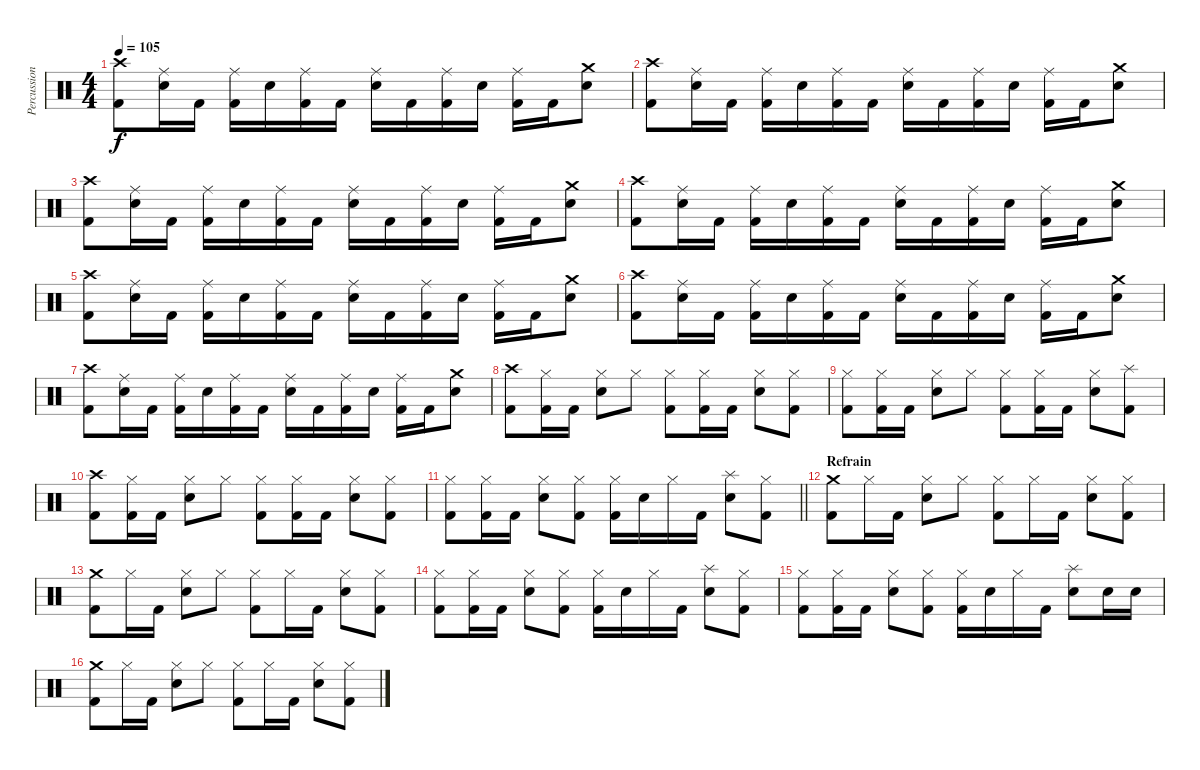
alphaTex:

\track ("Percussions" "Percussion") {instrument percussion}
\staff {score}
\articulation defaults
\ts (4 4)
\tempo 105
\clef neutral
\ks c
("Crash high (hit)" "Kick (hit) 2").8{dy f} ("Ride (middle)" "Electric Snare (hit)").16 "Kick (hit) 2".16 ("Ride (middle)" "Kick (hit) 2").16 "Electric Snare (hit)".16 ("Ride (middle)" "Kick (hit) 2").16 "Kick (hit) 2".16 ("Ride (middle)" "Electric Snare (hit)").16 "Kick (hit) 2".16 ("Ride (middle)" "Kick (hit) 2").16 "Electric Snare (hit)".16 ("Ride (middle)" "Kick (hit) 2").16 "Kick (hit) 2".16 ("Crash medium (hit)" "Electric Snare (hit)").8 |
("Crash high (hit)" "Kick (hit) 2").8 ("Ride (middle)" "Electric Snare (hit)").16 "Kick (hit) 2".16 ("Ride (middle)" "Kick (hit) 2").16 "Electric Snare (hit)".16 ("Ride (middle)" "Kick (hit) 2").16 "Kick (hit) 2".16 ("Ride (middle)" "Electric Snare (hit)").16 "Kick (hit) 2".16 ("Ride (middle)" "Kick (hit) 2").16 "Electric Snare (hit)".16 ("Ride (middle)" "Kick (hit) 2").16 "Kick (hit) 2".16 ("Crash medium (hit)" "Electric Snare (hit)").8 |
("Crash high (hit)" "Kick (hit) 2").8 ("Ride (middle)" "Electric Snare (hit)").16 "Kick (hit) 2".16 ("Ride (middle)" "Kick (hit) 2").16 "Electric Snare (hit)".16 ("Ride (middle)" "Kick (hit) 2").16 "Kick (hit) 2".16 ("Ride (middle)" "Electric Snare (hit)").16 "Kick (hit) 2".16 ("Ride (middle)" "Kick (hit) 2").16 "Electric Snare (hit)".16 ("Ride (middle)" "Kick (hit) 2").16 "Kick (hit) 2".16 ("Crash medium (hit)" "Electric Snare (hit)").8 |
("Crash high (hit)" "Kick (hit) 2").8 ("Ride (middle)" "Electric Snare (hit)").16 "Kick (hit) 2".16 ("Ride (middle)" "Kick (hit) 2").16 "Electric Snare (hit)".16 ("Ride (middle)" "Kick (hit) 2").16 "Kick (hit) 2".16 ("Ride (middle)" "Electric Snare (hit)").16 "Kick (hit) 2".16 ("Ride (middle)" "Kick (hit) 2").16 "Electric Snare (hit)".16 ("Ride (middle)" "Kick (hit) 2").16 "Kick (hit) 2".16 ("Crash medium (hit)" "Electric Snare (hit)").8 |
("Crash high (hit)" "Kick (hit) 2").8 ("Ride (middle)" "Electric Snare (hit)").16 "Kick (hit) 2".16 ("Ride (middle)" "Kick (hit) 2").16 "Electric Snare (hit)".16 ("Ride (middle)" "Kick (hit) 2").16 "Kick (hit) 2".16 ("Ride (middle)" "Electric Snare (hit)").16 "Kick (hit) 2".16 ("Ride (middle)" "Kick (hit) 2").16 "Electric Snare (hit)".16 ("Ride (middle)" "Kick (hit) 2").16 "Kick (hit) 2".16 ("Crash medium (hit)" "Electric Snare (hit)").8 |
("Crash high (hit)" "Kick (hit) 2").8 ("Ride (middle)" "Electric Snare (hit)").16 "Kick (hit) 2".16 ("Ride (middle)" "Kick (hit) 2").16 "Electric Snare (hit)".16 ("Ride (middle)" "Kick (hit) 2").16 "Kick (hit) 2".16 ("Ride (middle)" "Electric Snare (hit)").16 "Kick (hit) 2".16 ("Ride (middle)" "Kick (hit) 2").16 "Electric Snare (hit)".16 ("Ride (middle)" "Kick (hit) 2").16 "Kick (hit) 2".16 ("Crash medium (hit)" "Electric Snare (hit)").8 |
("Crash high (hit)" "Kick (hit) 2").8 ("Ride (middle)" "Electric Snare (hit)").16 "Kick (hit) 2".16 ("Ride (middle)" "Kick (hit) 2").16 "Electric Snare (hit)".16 ("Ride (middle)" "Kick (hit) 2").16 "Kick (hit) 2".16 ("Ride (middle)" "Electric Snare (hit)").16 "Kick (hit) 2".16 ("Ride (middle)" "Kick (hit) 2").16 "Electric Snare (hit)".16 ("Ride (middle)" "Kick (hit) 2").16 "Kick (hit) 2".16 ("Crash medium (hit)" "Electric Snare (hit)").8 |
("Crash high (hit)" "Kick (hit) 2").8 ("Hi-Hat (closed)" "Kick (hit) 2").16 "Kick (hit) 2".16 ("Hi-Hat (closed)" "Electric Snare (hit)").8 "Hi-Hat (closed)".8 ("Hi-Hat (closed)" "Kick (hit) 2").8 ("Hi-Hat (closed)" "Kick (hit) 2").16 "Kick (hit) 2".16 ("Hi-Hat (closed)" "Electric Snare (hit)").8 ("Hi-Hat (closed)" "Kick (hit) 2").8 |
("Hi-Hat (closed)" "Kick (hit) 2").8 ("Hi-Hat (closed)" "Kick (hit) 2").16 "Kick (hit) 2".16 ("Hi-Hat (closed)" "Electric Snare (hit)").8 "Hi-Hat (closed)".8 ("Hi-Hat (closed)" "Kick (hit) 2").8 ("Hi-Hat (closed)" "Kick (hit) 2").16 "Kick (hit) 2".16 ("Hi-Hat (closed)" "Electric Snare (hit)").8 ("Splash (hit)" "Kick (hit) 2").8 |
("Crash high (hit)" "Kick (hit) 2").8 ("Hi-Hat (closed)" "Kick (hit) 2").16 "Kick (hit) 2".16 ("Hi-Hat (closed)" "Electric Snare (hit)").8 "Hi-Hat (closed)".8 ("Hi-Hat (closed)" "Kick (hit) 2").8 ("Hi-Hat (closed)" "Kick (hit) 2").16 "Kick (hit) 2".16 ("Hi-Hat (closed)" "Electric Snare (hit)").8 ("Hi-Hat (closed)" "Kick (hit) 2").8 |
\barLineRight lightlight
("Hi-Hat (closed)" "Kick (hit) 2").8 ("Hi-Hat (closed)" "Kick (hit) 2").16 "Kick (hit) 2".16 ("Hi-Hat (closed)" "Electric Snare (hit)").8 ("Hi-Hat (closed)" "Kick (hit) 2").8 ("Hi-Hat (closed)" "Kick (hit) 2").16 "Electric Snare (hit)".16 "Hi-Hat (closed)".16 "Kick (hit) 2".16 ("Splash (hit)" "Electric Snare (hit)").8 ("Hi-Hat (closed)" "Kick (hit) 2").8 |
\section ("" "Refrain")
("Crash medium (hit)" "Kick (hit) 2").8 "Hi-Hat (closed)".16 "Kick (hit) 2".16 ("Hi-Hat (closed)" "Electric Snare (hit)").8 "Hi-Hat (closed)".8 ("Hi-Hat (closed)" "Kick (hit) 2").8 "Hi-Hat (closed)".16 "Kick (hit) 2".16 ("Hi-Hat (closed)" "Electric Snare (hit)").8 ("Hi-Hat (closed)" "Kick (hit) 2").8 |
("Crash medium (hit)" "Kick (hit) 2").8 "Hi-Hat (closed)".16 "Kick (hit) 2".16 ("Hi-Hat (closed)" "Electric Snare (hit)").8 "Hi-Hat (closed)".8 ("Hi-Hat (closed)" "Kick (hit) 2").8 "Hi-Hat (closed)".16 "Kick (hit) 2".16 ("Hi-Hat (closed)" "Electric Snare (hit)").8 ("Hi-Hat (closed)" "Kick (hit) 2").8 |
("Hi-Hat (closed)" "Kick (hit) 2").8 ("Hi-Hat (closed)" "Kick (hit) 2").16 "Kick (hit) 2".16 ("Hi-Hat (closed)" "Electric Snare (hit)").8 ("Hi-Hat (closed)" "Kick (hit) 2").8 ("Hi-Hat (closed)" "Kick (hit) 2").16 "Electric Snare (hit)".16 "Hi-Hat (closed)".16 "Kick (hit) 2".16 ("Splash (hit)" "Electric Snare (hit)").8 ("Hi-Hat (closed)" "Kick (hit) 2").8 |
("Hi-Hat (closed)" "Kick (hit) 2").8 ("Hi-Hat (closed)" "Kick (hit) 2").16 "Kick (hit) 2".16 ("Hi-Hat (closed)" "Electric Snare (hit)").8 ("Hi-Hat (closed)" "Kick (hit) 2").8 ("Hi-Hat (closed)" "Kick (hit) 2").16 "Electric Snare (hit)".16 "Hi-Hat (closed)".16 "Kick (hit) 2".16 ("Splash (hit)" "Electric Snare (hit)").8 "Electric Snare (hit)".16 "Electric Snare (hit)".16 |
("Crash medium (hit)" "Kick (hit) 2").8 "Hi-Hat (closed)".16 "Kick (hit) 2".16 ("Hi-Hat (closed)" "Electric Snare (hit)").8 "Hi-Hat (closed)".8 ("Hi-Hat (closed)" "Kick (hit) 2").8 "Hi-Hat (closed)".16 "Kick (hit) 2".16 ("Hi-Hat (closed)" "Electric Snare (hit)").8 ("Hi-Hat (closed)" "Kick (hit) 2").8
